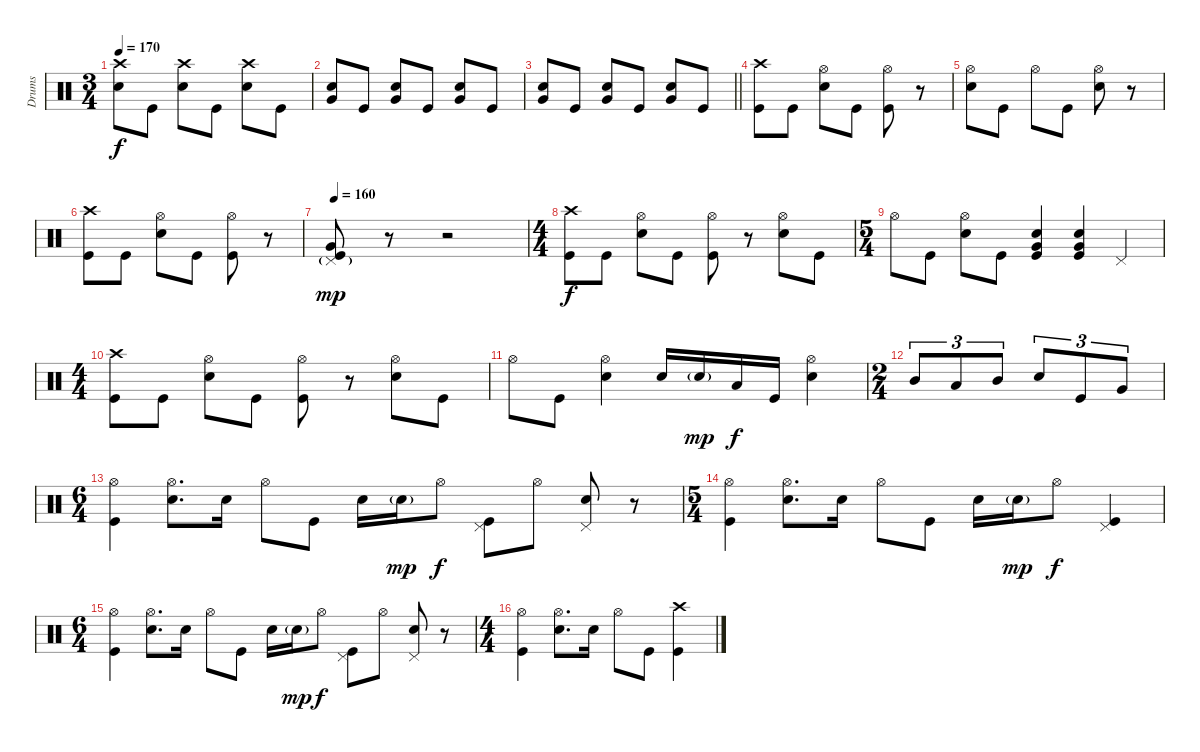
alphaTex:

\track ("Drums" "Drums") {instrument percussion}
\staff {score}
\articulation defaults
\ts (3 4)
\tempo 170
\clef neutral
\ks c
("Snare (hit) 2" "Crash high (hit)").8{dy f} "Kick (hit)".8 ("Snare (hit) 2" "Crash high (hit)").8 "Kick (hit)".8 ("Snare (hit) 2" "Crash high (hit)").8 "Kick (hit)".8 |
("Snare (hit) 2" "Very Low Tom (hit)").8 "Kick (hit)".8 ("Snare (hit) 2" "Very Low Tom (hit)").8 "Kick (hit)".8 ("Snare (hit) 2" "Very Low Tom (hit)").8 "Kick (hit)".8 |
\barLineRight lightlight
("Snare (hit) 2" "Very Low Tom (hit)").8 "Kick (hit)".8 ("Snare (hit) 2" "Very Low Tom (hit)").8 "Kick (hit)".8 ("Snare (hit) 2" "Very Low Tom (hit)").8 "Kick (hit)".8 |
("Kick (hit)" "Crash high (hit)").8 "Kick (hit)".8 ("Snare (hit) 2" "Hi-Hat (open)").8 "Kick (hit)".8 ("Kick (hit)" "Hi-Hat (open)").8 r.8 |
("Snare (hit) 2" "Hi-Hat (open)").8 "Kick (hit)".8 "Hi-Hat (open)".8 "Kick (hit)".8 ("Snare (hit) 2" "Hi-Hat (open)").8 r.8 |
("Kick (hit)" "Crash high (hit)").8 "Kick (hit)".8 ("Snare (hit) 2" "Hi-Hat (open)").8 "Kick (hit)".8 ("Kick (hit)" "Hi-Hat (open)").8 r.8 |
\tempo 160
("Kick (hit)" "Very Low Tom (hit)" "Pedal Hi-Hat (hit)"{g}).8{dy mp} r.8 r.2 |
\ts (4 4)
("Kick (hit)" "Crash high (hit)").8{dy f} "Kick (hit)".8 ("Snare (hit) 2" "Hi-Hat (open)").8 "Kick (hit)".8 ("Kick (hit)" "Hi-Hat (open)").8 r.8 ("Snare (hit) 2" "Hi-Hat (open)").8 "Kick (hit)".8 |
\ts (5 4)
"Hi-Hat (open)".8 "Kick (hit)".8 ("Snare (hit) 2" "Hi-Hat (open)").8 "Kick (hit)".8 ("Kick (hit)" "Snare (hit) 2" "Very Low Tom (hit)").4 ("Kick (hit)" "Snare (hit) 2" "Very Low Tom (hit)").4 "Pedal Hi-Hat (hit)".4 |
\ts (4 4)
("Kick (hit)" "Crash high (hit)").8 "Kick (hit)".8 ("Snare (hit) 2" "Hi-Hat (open)").8 "Kick (hit)".8 ("Kick (hit)" "Hi-Hat (open)").8 r.8 ("Snare (hit) 2" "Hi-Hat (open)").8 "Kick (hit)".8 |
"Hi-Hat (open)".8 "Kick (hit)".8 ("Snare (hit) 2" "Hi-Hat (open)").4 "Snare (hit) 2".16 "Snare (hit) 2"{g}.16{dy mp} "Low Tom (hit)".16{dy f} "Kick (hit)".16 ("Snare (hit) 2" "Hi-Hat (open)").4 |
\ts (2 4)
"Mid Tom (hit)".8{tu (3 2)} "Low Tom (hit)".8{tu (3 2)} "Mid Tom (hit)".8{tu (3 2)} "Snare (hit) 2".8{tu (3 2)} "Kick (hit)".8{tu (3 2)} "Very Low Tom (hit)".8{tu (3 2)} |
\ts (6 4)
("Kick (hit)" "Hi-Hat (open)").4 ("Snare (hit) 2" "Hi-Hat (open)").8{d} "Snare (hit) 2".16 "Hi-Hat (open)".8 "Kick (hit)".8 "Snare (hit) 2".16 "Snare (hit) 2"{g}.16{dy mp} "Hi-Hat (open)".8{dy f} ("Kick (hit)" "Pedal Hi-Hat (hit)").8 "Hi-Hat (open)".8 ("Snare (hit) 2" "Pedal Hi-Hat (hit)").8 r.8 |
\ts (5 4)
("Kick (hit)" "Hi-Hat (open)").4 ("Snare (hit) 2" "Hi-Hat (open)").8{d} "Snare (hit) 2".16 "Hi-Hat (open)".8 "Kick (hit)".8 "Snare (hit) 2".16 "Snare (hit) 2"{g}.16{dy mp} "Hi-Hat (open)".8{dy f} ("Kick (hit)" "Pedal Hi-Hat (hit)").4 |
\ts (6 4)
("Kick (hit)" "Hi-Hat (open)").4 ("Snare (hit) 2" "Hi-Hat (open)").8{d} "Snare (hit) 2".16 "Hi-Hat (open)".8 "Kick (hit)".8 "Snare (hit) 2".16 "Snare (hit) 2"{g}.16{dy mp} "Hi-Hat (open)".8{dy f} ("Kick (hit)" "Pedal Hi-Hat (hit)").8 "Hi-Hat (open)".8 ("Snare (hit) 2" "Pedal Hi-Hat (hit)").8 r.8 |
\ts (4 4)
("Kick (hit)" "Hi-Hat (open)").4 ("Snare (hit) 2" "Hi-Hat (open)").8{d} "Snare (hit) 2".16 "Hi-Hat (open)".8 "Kick (hit)".8 ("Kick (hit)" "Crash high (hit)").4
